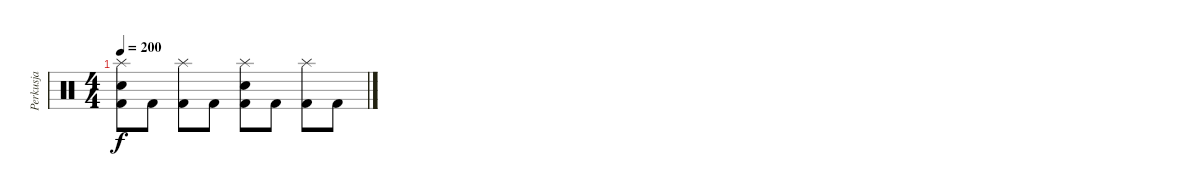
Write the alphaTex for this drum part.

\track ("Perkusja" "Perkusja") {instrument percussion}
\staff {score}
\articulation defaults
\ts (4 4)
\tempo 200
\clef neutral
\ks c
("Splash (hit)" "Snare (hit) 2" "Kick (hit) 2").8{dy f} "Kick (hit) 2".8 ("Splash (hit)" "Kick (hit) 2").8 "Kick (hit) 2".8 ("Splash (hit)" "Snare (hit) 2" "Kick (hit) 2").8 "Kick (hit) 2".8 ("Splash (hit)" "Kick (hit) 2").8 "Kick (hit) 2".8
